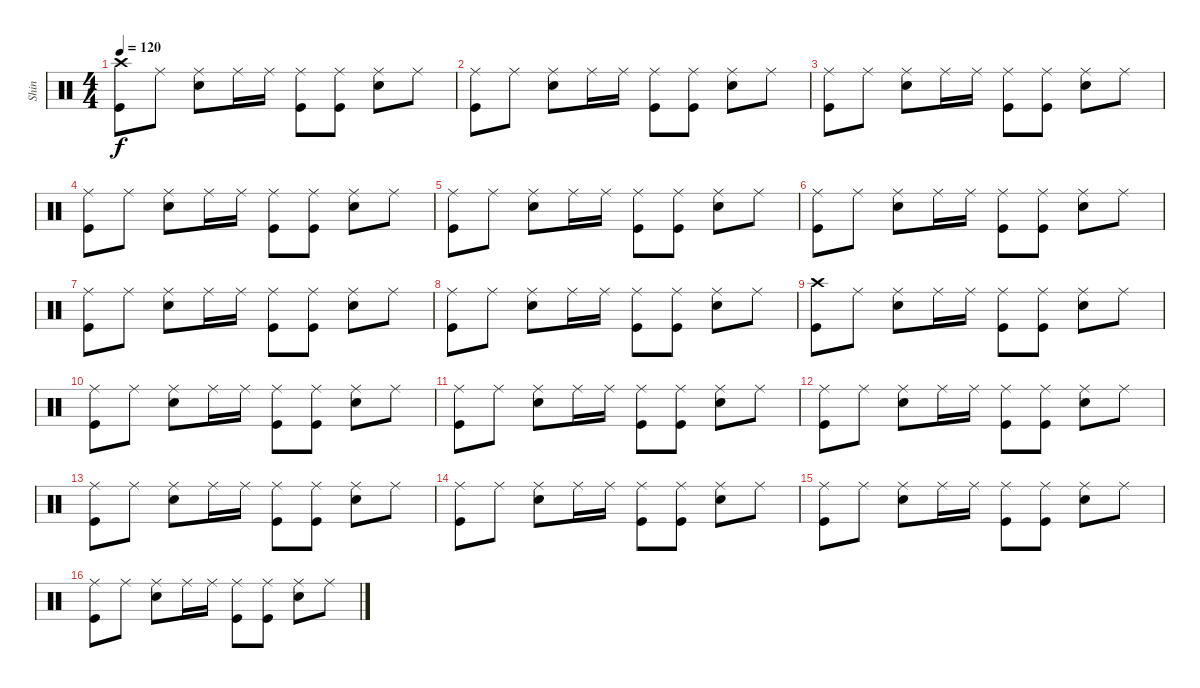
\track ("Shin" "Shin") {instrument percussion}
\staff {score}
\articulation defaults
\ts (4 4)
\tempo 120
\clef neutral
\ks c
("Crash high (hit)" "Kick (hit)").8{dy f} "Ride (middle)".8 ("Ride (middle)" "Electric Snare (hit)").8 "Ride (middle)".16 "Ride (middle)".16 ("Ride (middle)" "Kick (hit)").8 ("Ride (middle)" "Kick (hit)").8 ("Ride (middle)" "Electric Snare (hit)").8 "Ride (middle)".8 |
("Ride (middle)" "Kick (hit)").8 "Ride (middle)".8 ("Ride (middle)" "Electric Snare (hit)").8 "Ride (middle)".16 "Ride (middle)".16 ("Ride (middle)" "Kick (hit)").8 ("Ride (middle)" "Kick (hit)").8 ("Ride (middle)" "Electric Snare (hit)").8 "Ride (middle)".8 |
("Ride (middle)" "Kick (hit)").8 "Ride (middle)".8 ("Ride (middle)" "Electric Snare (hit)").8 "Ride (middle)".16 "Ride (middle)".16 ("Ride (middle)" "Kick (hit)").8 ("Ride (middle)" "Kick (hit)").8 ("Ride (middle)" "Electric Snare (hit)").8 "Ride (middle)".8 |
("Ride (middle)" "Kick (hit)").8 "Ride (middle)".8 ("Ride (middle)" "Electric Snare (hit)").8 "Ride (middle)".16 "Ride (middle)".16 ("Ride (middle)" "Kick (hit)").8 ("Ride (middle)" "Kick (hit)").8 ("Ride (middle)" "Electric Snare (hit)").8 "Ride (middle)".8 |
("Ride (middle)" "Kick (hit)").8 "Ride (middle)".8 ("Ride (middle)" "Electric Snare (hit)").8 "Ride (middle)".16 "Ride (middle)".16 ("Ride (middle)" "Kick (hit)").8 ("Ride (middle)" "Kick (hit)").8 ("Ride (middle)" "Electric Snare (hit)").8 "Ride (middle)".8 |
("Ride (middle)" "Kick (hit)").8 "Ride (middle)".8 ("Ride (middle)" "Electric Snare (hit)").8 "Ride (middle)".16 "Ride (middle)".16 ("Ride (middle)" "Kick (hit)").8 ("Ride (middle)" "Kick (hit)").8 ("Ride (middle)" "Electric Snare (hit)").8 "Ride (middle)".8 |
("Ride (middle)" "Kick (hit)").8 "Ride (middle)".8 ("Ride (middle)" "Electric Snare (hit)").8 "Ride (middle)".16 "Ride (middle)".16 ("Ride (middle)" "Kick (hit)").8 ("Ride (middle)" "Kick (hit)").8 ("Ride (middle)" "Electric Snare (hit)").8 "Ride (middle)".8 |
("Ride (middle)" "Kick (hit)").8 "Ride (middle)".8 ("Ride (middle)" "Electric Snare (hit)").8 "Ride (middle)".16 "Ride (middle)".16 ("Ride (middle)" "Kick (hit)").8 ("Ride (middle)" "Kick (hit)").8 ("Ride (middle)" "Electric Snare (hit)").8 "Ride (middle)".8 |
("Crash high (hit)" "Kick (hit)").8 "Ride (middle)".8 ("Ride (middle)" "Electric Snare (hit)").8 "Ride (middle)".16 "Ride (middle)".16 ("Ride (middle)" "Kick (hit)").8 ("Ride (middle)" "Kick (hit)").8 ("Ride (middle)" "Electric Snare (hit)").8 "Ride (middle)".8 |
("Ride (middle)" "Kick (hit)").8 "Ride (middle)".8 ("Ride (middle)" "Electric Snare (hit)").8 "Ride (middle)".16 "Ride (middle)".16 ("Ride (middle)" "Kick (hit)").8 ("Ride (middle)" "Kick (hit)").8 ("Ride (middle)" "Electric Snare (hit)").8 "Ride (middle)".8 |
("Ride (middle)" "Kick (hit)").8 "Ride (middle)".8 ("Ride (middle)" "Electric Snare (hit)").8 "Ride (middle)".16 "Ride (middle)".16 ("Ride (middle)" "Kick (hit)").8 ("Ride (middle)" "Kick (hit)").8 ("Ride (middle)" "Electric Snare (hit)").8 "Ride (middle)".8 |
("Ride (middle)" "Kick (hit)").8 "Ride (middle)".8 ("Ride (middle)" "Electric Snare (hit)").8 "Ride (middle)".16 "Ride (middle)".16 ("Ride (middle)" "Kick (hit)").8 ("Ride (middle)" "Kick (hit)").8 ("Ride (middle)" "Electric Snare (hit)").8 "Ride (middle)".8 |
("Ride (middle)" "Kick (hit)").8 "Ride (middle)".8 ("Ride (middle)" "Electric Snare (hit)").8 "Ride (middle)".16 "Ride (middle)".16 ("Ride (middle)" "Kick (hit)").8 ("Ride (middle)" "Kick (hit)").8 ("Ride (middle)" "Electric Snare (hit)").8 "Ride (middle)".8 |
("Ride (middle)" "Kick (hit)").8 "Ride (middle)".8 ("Ride (middle)" "Electric Snare (hit)").8 "Ride (middle)".16 "Ride (middle)".16 ("Ride (middle)" "Kick (hit)").8 ("Ride (middle)" "Kick (hit)").8 ("Ride (middle)" "Electric Snare (hit)").8 "Ride (middle)".8 |
("Ride (middle)" "Kick (hit)").8 "Ride (middle)".8 ("Ride (middle)" "Electric Snare (hit)").8 "Ride (middle)".16 "Ride (middle)".16 ("Ride (middle)" "Kick (hit)").8 ("Ride (middle)" "Kick (hit)").8 ("Ride (middle)" "Electric Snare (hit)").8 "Ride (middle)".8 |
("Ride (middle)" "Kick (hit)").8 "Ride (middle)".8 ("Ride (middle)" "Electric Snare (hit)").8 "Ride (middle)".16 "Ride (middle)".16 ("Ride (middle)" "Kick (hit)").8 ("Ride (middle)" "Kick (hit)").8 ("Ride (middle)" "Electric Snare (hit)").8 "Ride (middle)".8
